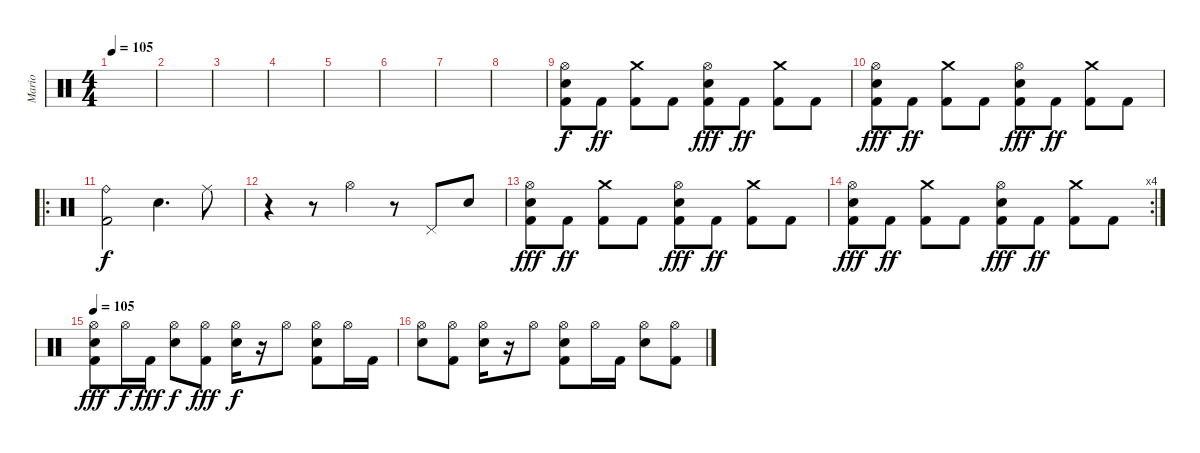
\track ("Mario" "Mario") {instrument percussion}
\staff {score}
\articulation defaults
\ts (4 4)
\tempo 105
\clef neutral
\ks c
|
|
|
|
|
|
|
|
("Hi-Hat (open)" "Electric Snare (hit)" "Kick (hit) 2").8 "Kick (hit) 2".8{dy ff} ("Crash medium (hit)" "Kick (hit) 2").8 "Kick (hit) 2".8 ("Hi-Hat (open)" "Electric Snare (hit)" "Kick (hit) 2").8{dy fff} "Kick (hit) 2".8{dy ff} ("Crash medium (hit)" "Kick (hit) 2").8 "Kick (hit) 2".8 |
("Hi-Hat (open)" "Electric Snare (hit)" "Kick (hit) 2").8{dy fff} "Kick (hit) 2".8{dy ff} ("Crash medium (hit)" "Kick (hit) 2").8 "Kick (hit) 2".8 ("Hi-Hat (open)" "Electric Snare (hit)" "Kick (hit) 2").8{dy fff} "Kick (hit) 2".8{dy ff} ("Crash medium (hit)" "Kick (hit) 2").8 "Kick (hit) 2".8 |
\ro
("Ride (bell)" "Kick (hit) 2").2{dy f} "Snare (hit) 2".4{d} "Ride (middle)".8 |
r.4 r.8 "Hi-Hat (open)".4 r.8 "Pedal Hi-Hat (hit)".8 "Snare (hit) 2".8 |
("Hi-Hat (open)" "Electric Snare (hit)" "Kick (hit) 2").8{dy fff} "Kick (hit) 2".8{dy ff} ("Crash medium (hit)" "Kick (hit) 2").8 "Kick (hit) 2".8 ("Hi-Hat (open)" "Electric Snare (hit)" "Kick (hit) 2").8{dy fff} "Kick (hit) 2".8{dy ff} ("Crash medium (hit)" "Kick (hit) 2").8 "Kick (hit) 2".8 |
\rc 4
("Hi-Hat (open)" "Electric Snare (hit)" "Kick (hit) 2").8{dy fff} "Kick (hit) 2".8{dy ff} ("Crash medium (hit)" "Kick (hit) 2").8 "Kick (hit) 2".8 ("Hi-Hat (open)" "Electric Snare (hit)" "Kick (hit) 2").8{dy fff} "Kick (hit) 2".8{dy ff} ("Crash medium (hit)" "Kick (hit) 2").8 "Kick (hit) 2".8 |
\tempo 105
("Hi-Hat (open)" "Electric Snare (hit)" "Kick (hit) 2").8{dy fff} "Hi-Hat (open)".16{dy f} "Kick (hit) 2".16{dy fff} ("Hi-Hat (open)" "Electric Snare (hit)").8{dy f} ("Hi-Hat (open)" "Kick (hit) 2").8{dy fff} ("Hi-Hat (open)" "Electric Snare (hit)").16{dy f} r.16 "Hi-Hat (open)".8 ("Hi-Hat (open)" "Electric Snare (hit)" "Kick (hit) 2").8 "Hi-Hat (open)".16 "Kick (hit) 2".16 |
("Hi-Hat (open)" "Electric Snare (hit)").8 ("Hi-Hat (open)" "Kick (hit) 2").8 ("Hi-Hat (open)" "Electric Snare (hit)").16 r.16 "Hi-Hat (open)".8 ("Hi-Hat (open)" "Electric Snare (hit)" "Kick (hit) 2").8 "Hi-Hat (open)".16 "Kick (hit) 2".16 ("Hi-Hat (open)" "Electric Snare (hit)").8 ("Hi-Hat (open)" "Kick (hit) 2").8
